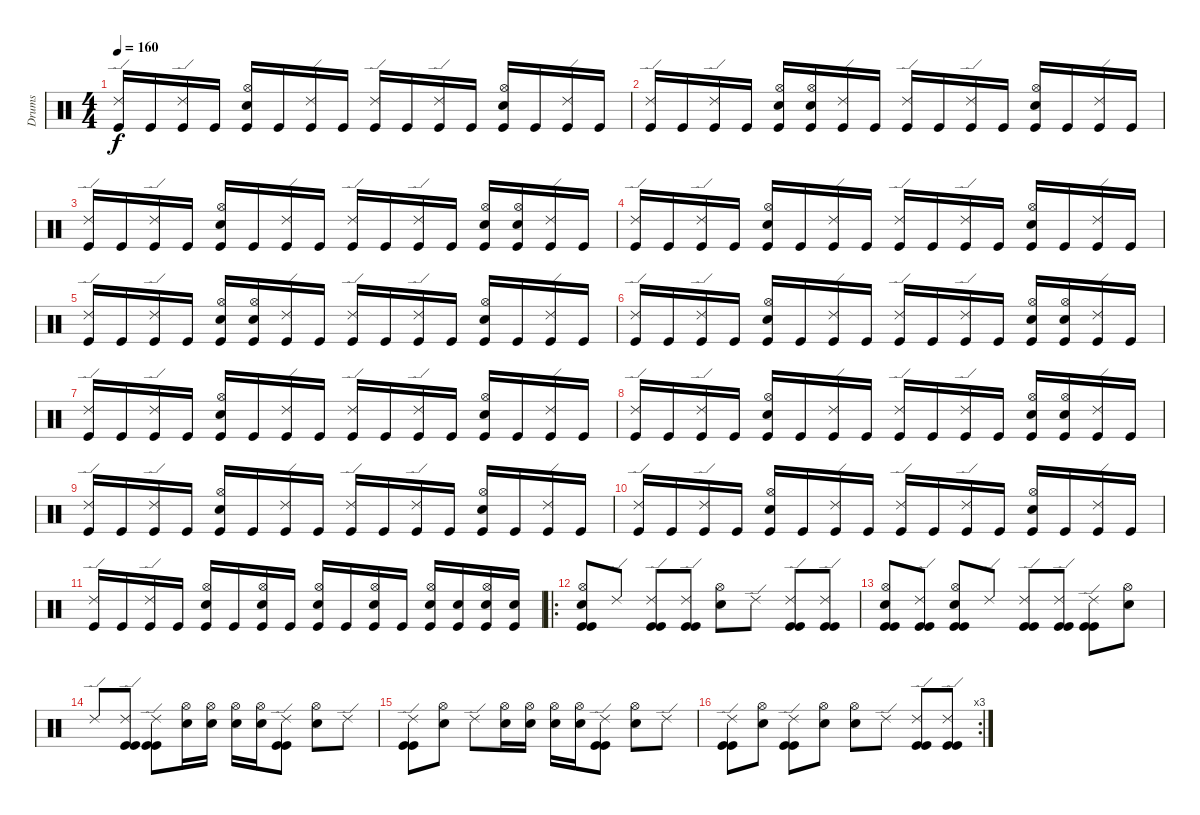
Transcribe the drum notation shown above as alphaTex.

\track ("Drums" "Drums") {instrument percussion}
\staff {score}
\articulation defaults
\ts (4 4)
\tempo 160
\clef neutral
\ks c
("Ride (edge) 2" "Kick (hit)").16{dy f} "Kick (hit)".16 ("Ride (edge) 2" "Kick (hit)").16 "Kick (hit)".16 ("Hi-Hat (open)" "Snare (hit) 2" "Kick (hit)").16 "Kick (hit)".16 ("Ride (edge) 2" "Kick (hit)").16 "Kick (hit)".16 ("Ride (edge) 2" "Kick (hit)").16 "Kick (hit)".16 ("Ride (edge) 2" "Kick (hit)").16 "Kick (hit)".16 ("Hi-Hat (open)" "Snare (hit) 2" "Kick (hit)").16 "Kick (hit)".16 ("Ride (edge) 2" "Kick (hit)").16 "Kick (hit)".16 |
("Ride (edge) 2" "Kick (hit)").16 "Kick (hit)".16 ("Ride (edge) 2" "Kick (hit)").16 "Kick (hit)".16 ("Hi-Hat (open)" "Snare (hit) 2" "Kick (hit)").16 ("Hi-Hat (open)" "Snare (hit) 2" "Kick (hit)").16 ("Ride (edge) 2" "Kick (hit)").16 "Kick (hit)".16 ("Ride (edge) 2" "Kick (hit)").16 "Kick (hit)".16 ("Ride (edge) 2" "Kick (hit)").16 "Kick (hit)".16 ("Hi-Hat (open)" "Snare (hit) 2" "Kick (hit)").16 "Kick (hit)".16 ("Ride (edge) 2" "Kick (hit)").16 "Kick (hit)".16 |
("Ride (edge) 2" "Kick (hit)").16 "Kick (hit)".16 ("Ride (edge) 2" "Kick (hit)").16 "Kick (hit)".16 ("Hi-Hat (open)" "Snare (hit) 2" "Kick (hit)").16 "Kick (hit)".16 ("Ride (edge) 2" "Kick (hit)").16 "Kick (hit)".16 ("Ride (edge) 2" "Kick (hit)").16 "Kick (hit)".16 ("Ride (edge) 2" "Kick (hit)").16 "Kick (hit)".16 ("Hi-Hat (open)" "Snare (hit) 2" "Kick (hit)").16 ("Hi-Hat (open)" "Snare (hit) 2" "Kick (hit)").16 ("Ride (edge) 2" "Kick (hit)").16 "Kick (hit)".16 |
("Ride (edge) 2" "Kick (hit)").16 "Kick (hit)".16 ("Ride (edge) 2" "Kick (hit)").16 "Kick (hit)".16 ("Hi-Hat (open)" "Snare (hit) 2" "Kick (hit)").16 "Kick (hit)".16 ("Ride (edge) 2" "Kick (hit)").16 "Kick (hit)".16 ("Ride (edge) 2" "Kick (hit)").16 "Kick (hit)".16 ("Ride (edge) 2" "Kick (hit)").16 "Kick (hit)".16 ("Hi-Hat (open)" "Snare (hit) 2" "Kick (hit)").16 "Kick (hit)".16 ("Ride (edge) 2" "Kick (hit)").16 "Kick (hit)".16 |
("Ride (edge) 2" "Kick (hit)").16 "Kick (hit)".16 ("Ride (edge) 2" "Kick (hit)").16 "Kick (hit)".16 ("Hi-Hat (open)" "Snare (hit) 2" "Kick (hit)").16 ("Hi-Hat (open)" "Snare (hit) 2" "Kick (hit)").16 ("Ride (edge) 2" "Kick (hit)").16 "Kick (hit)".16 ("Ride (edge) 2" "Kick (hit)").16 "Kick (hit)".16 ("Ride (edge) 2" "Kick (hit)").16 "Kick (hit)".16 ("Hi-Hat (open)" "Snare (hit) 2" "Kick (hit)").16 "Kick (hit)".16 ("Ride (edge) 2" "Kick (hit)").16 "Kick (hit)".16 |
("Ride (edge) 2" "Kick (hit)").16 "Kick (hit)".16 ("Ride (edge) 2" "Kick (hit)").16 "Kick (hit)".16 ("Hi-Hat (open)" "Snare (hit) 2" "Kick (hit)").16 "Kick (hit)".16 ("Ride (edge) 2" "Kick (hit)").16 "Kick (hit)".16 ("Ride (edge) 2" "Kick (hit)").16 "Kick (hit)".16 ("Ride (edge) 2" "Kick (hit)").16 "Kick (hit)".16 ("Hi-Hat (open)" "Snare (hit) 2" "Kick (hit)").16 ("Hi-Hat (open)" "Snare (hit) 2" "Kick (hit)").16 ("Ride (edge) 2" "Kick (hit)").16 "Kick (hit)".16 |
("Ride (edge) 2" "Kick (hit)").16 "Kick (hit)".16 ("Ride (edge) 2" "Kick (hit)").16 "Kick (hit)".16 ("Hi-Hat (open)" "Snare (hit) 2" "Kick (hit)").16 "Kick (hit)".16 ("Ride (edge) 2" "Kick (hit)").16 "Kick (hit)".16 ("Ride (edge) 2" "Kick (hit)").16 "Kick (hit)".16 ("Ride (edge) 2" "Kick (hit)").16 "Kick (hit)".16 ("Hi-Hat (open)" "Snare (hit) 2" "Kick (hit)").16 "Kick (hit)".16 ("Ride (edge) 2" "Kick (hit)").16 "Kick (hit)".16 |
("Ride (edge) 2" "Kick (hit)").16 "Kick (hit)".16 ("Ride (edge) 2" "Kick (hit)").16 "Kick (hit)".16 ("Hi-Hat (open)" "Snare (hit) 2" "Kick (hit)").16 "Kick (hit)".16 ("Ride (edge) 2" "Kick (hit)").16 "Kick (hit)".16 ("Ride (edge) 2" "Kick (hit)").16 "Kick (hit)".16 ("Ride (edge) 2" "Kick (hit)").16 "Kick (hit)".16 ("Hi-Hat (open)" "Snare (hit) 2" "Kick (hit)").16 ("Hi-Hat (open)" "Snare (hit) 2" "Kick (hit)").16 ("Ride (edge) 2" "Kick (hit)").16 "Kick (hit)".16 |
("Ride (edge) 2" "Kick (hit)").16 "Kick (hit)".16 ("Ride (edge) 2" "Kick (hit)").16 "Kick (hit)".16 ("Hi-Hat (open)" "Snare (hit) 2" "Kick (hit)").16 "Kick (hit)".16 ("Ride (edge) 2" "Kick (hit)").16 "Kick (hit)".16 ("Ride (edge) 2" "Kick (hit)").16 "Kick (hit)".16 ("Ride (edge) 2" "Kick (hit)").16 "Kick (hit)".16 ("Hi-Hat (open)" "Snare (hit) 2" "Kick (hit)").16 "Kick (hit)".16 ("Ride (edge) 2" "Kick (hit)").16 "Kick (hit)".16 |
("Ride (edge) 2" "Kick (hit)").16 "Kick (hit)".16 ("Ride (edge) 2" "Kick (hit)").16 "Kick (hit)".16 ("Hi-Hat (open)" "Snare (hit) 2" "Kick (hit)").16 "Kick (hit)".16 ("Ride (edge) 2" "Kick (hit)").16 "Kick (hit)".16 ("Ride (edge) 2" "Kick (hit)").16 "Kick (hit)".16 ("Ride (edge) 2" "Kick (hit)").16 "Kick (hit)".16 ("Hi-Hat (open)" "Snare (hit) 2" "Kick (hit)").16 "Kick (hit)".16 ("Ride (edge) 2" "Kick (hit)").16 "Kick (hit)".16 |
("Ride (edge) 2" "Kick (hit)").16 "Kick (hit)".16 ("Ride (edge) 2" "Kick (hit)").16 "Kick (hit)".16 ("Hi-Hat (open)" "Snare (hit) 2" "Kick (hit)").16 "Kick (hit)".16 ("Hi-Hat (open)" "Snare (hit) 2" "Kick (hit)").16 "Kick (hit)".16 ("Hi-Hat (open)" "Snare (hit) 2" "Kick (hit)").16 "Kick (hit)".16 ("Hi-Hat (open)" "Snare (hit) 2" "Kick (hit)").16 "Kick (hit)".16 ("Hi-Hat (open)" "Snare (hit) 2" "Kick (hit)").16 ("Snare (hit) 2" "Kick (hit)").16 ("Hi-Hat (open)" "Snare (hit) 2" "Kick (hit)").16 ("Snare (hit) 2" "Kick (hit)").16 |
\ro
("Hi-Hat (open)" "Snare (hit) 2" "Kick (hit)" "Kick (hit)").8 "Ride (edge) 2".8 ("Ride (edge) 2" "Kick (hit)" "Kick (hit)").8 ("Ride (edge) 2" "Kick (hit)" "Kick (hit)").8 ("Hi-Hat (open)" "Snare (hit) 2").8 "Ride (edge) 2".8 ("Ride (edge) 2" "Kick (hit)" "Kick (hit)").8 ("Ride (edge) 2" "Kick (hit)" "Kick (hit)").8 |
("Hi-Hat (open)" "Snare (hit) 2" "Kick (hit)" "Kick (hit)").8 ("Ride (edge) 2" "Kick (hit)" "Kick (hit)").8 ("Hi-Hat (open)" "Snare (hit) 2" "Kick (hit)" "Kick (hit)").8 "Ride (edge) 2".8 ("Ride (edge) 2" "Kick (hit)" "Kick (hit)").8 ("Ride (edge) 2" "Kick (hit)" "Kick (hit)").8 ("Ride (edge) 2" "Kick (hit)" "Kick (hit)").8 ("Hi-Hat (open)" "Snare (hit) 2").8 |
"Ride (edge) 2".8 ("Ride (edge) 2" "Kick (hit)" "Kick (hit)").8 ("Ride (edge) 2" "Kick (hit)" "Kick (hit)").8 ("Hi-Hat (open)" "Snare (hit) 2").16 ("Hi-Hat (open)" "Snare (hit) 2").16 ("Hi-Hat (open)" "Snare (hit) 2").16 ("Hi-Hat (open)" "Snare (hit) 2").16 ("Ride (edge) 2" "Kick (hit)" "Kick (hit)").8 ("Hi-Hat (open)" "Snare (hit) 2").8 "Ride (edge) 2".8 |
("Ride (edge) 2" "Kick (hit)" "Kick (hit)").8 ("Hi-Hat (open)" "Snare (hit) 2").8 "Ride (edge) 2".8 ("Hi-Hat (open)" "Snare (hit) 2").16 ("Hi-Hat (open)" "Snare (hit) 2").16 ("Hi-Hat (open)" "Snare (hit) 2").16 ("Hi-Hat (open)" "Snare (hit) 2").16 ("Ride (edge) 2" "Kick (hit)" "Kick (hit)").8 ("Hi-Hat (open)" "Snare (hit) 2").8 "Ride (edge) 2".8 |
\rc 3
("Ride (edge) 2" "Kick (hit)" "Kick (hit)").8 ("Hi-Hat (open)" "Snare (hit) 2").8 ("Ride (edge) 2" "Kick (hit)" "Kick (hit)").8 ("Hi-Hat (open)" "Snare (hit) 2").8 ("Hi-Hat (open)" "Snare (hit) 2").8 "Ride (edge) 2".8 ("Ride (edge) 2" "Kick (hit)" "Kick (hit)").8 ("Ride (edge) 2" "Kick (hit)" "Kick (hit)").8
